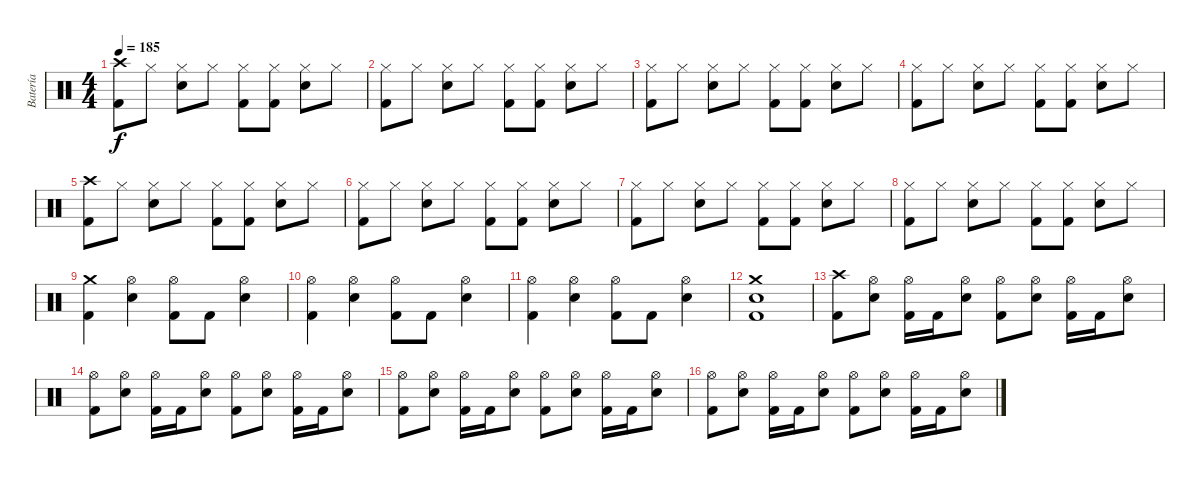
\track ("Batería" "Batería") {instrument percussion}
\staff {score}
\articulation defaults
\ts (4 4)
\tempo 185
\clef neutral
\ks c
("Crash high (hit)" "Kick (hit) 2").8{dy f} "Hi-Hat (closed)".8 ("Hi-Hat (closed)" "Electric Snare (hit)").8 "Hi-Hat (closed)".8 ("Hi-Hat (closed)" "Kick (hit) 2").8 ("Hi-Hat (closed)" "Kick (hit) 2").8 ("Hi-Hat (closed)" "Electric Snare (hit)").8 "Hi-Hat (closed)".8 |
("Hi-Hat (closed)" "Kick (hit) 2").8 "Hi-Hat (closed)".8 ("Hi-Hat (closed)" "Electric Snare (hit)").8 "Hi-Hat (closed)".8 ("Hi-Hat (closed)" "Kick (hit) 2").8 ("Hi-Hat (closed)" "Kick (hit) 2").8 ("Hi-Hat (closed)" "Electric Snare (hit)").8 "Hi-Hat (closed)".8 |
("Hi-Hat (closed)" "Kick (hit) 2").8 "Hi-Hat (closed)".8 ("Hi-Hat (closed)" "Electric Snare (hit)").8 "Hi-Hat (closed)".8 ("Hi-Hat (closed)" "Kick (hit) 2").8 ("Hi-Hat (closed)" "Kick (hit) 2").8 ("Hi-Hat (closed)" "Electric Snare (hit)").8 "Hi-Hat (closed)".8 |
("Hi-Hat (closed)" "Kick (hit) 2").8 "Hi-Hat (closed)".8 ("Hi-Hat (closed)" "Electric Snare (hit)").8 "Hi-Hat (closed)".8 ("Hi-Hat (closed)" "Kick (hit) 2").8 ("Hi-Hat (closed)" "Kick (hit) 2").8 ("Hi-Hat (closed)" "Electric Snare (hit)").8 "Hi-Hat (closed)".8 |
("Crash high (hit)" "Kick (hit) 2").8 "Hi-Hat (closed)".8 ("Hi-Hat (closed)" "Electric Snare (hit)").8 "Hi-Hat (closed)".8 ("Hi-Hat (closed)" "Kick (hit) 2").8 ("Hi-Hat (closed)" "Kick (hit) 2").8 ("Hi-Hat (closed)" "Electric Snare (hit)").8 "Hi-Hat (closed)".8 |
("Hi-Hat (closed)" "Kick (hit) 2").8 "Hi-Hat (closed)".8 ("Hi-Hat (closed)" "Electric Snare (hit)").8 "Hi-Hat (closed)".8 ("Hi-Hat (closed)" "Kick (hit) 2").8 ("Hi-Hat (closed)" "Kick (hit) 2").8 ("Hi-Hat (closed)" "Electric Snare (hit)").8 "Hi-Hat (closed)".8 |
("Hi-Hat (closed)" "Kick (hit) 2").8 "Hi-Hat (closed)".8 ("Hi-Hat (closed)" "Electric Snare (hit)").8 "Hi-Hat (closed)".8 ("Hi-Hat (closed)" "Kick (hit) 2").8 ("Hi-Hat (closed)" "Kick (hit) 2").8 ("Hi-Hat (closed)" "Electric Snare (hit)").8 "Hi-Hat (closed)".8 |
("Hi-Hat (closed)" "Kick (hit) 2").8 "Hi-Hat (closed)".8 ("Hi-Hat (closed)" "Electric Snare (hit)").8 "Hi-Hat (closed)".8 ("Hi-Hat (closed)" "Kick (hit) 2").8 ("Hi-Hat (closed)" "Kick (hit) 2").8 ("Hi-Hat (closed)" "Electric Snare (hit)").8 "Hi-Hat (closed)".8 |
("Crash medium (hit)" "Kick (hit) 2").4 ("Hi-Hat (open)" "Electric Snare (hit)").4 ("Hi-Hat (open)" "Kick (hit) 2").8 "Kick (hit) 2".8 ("Hi-Hat (open)" "Electric Snare (hit)").4 |
("Hi-Hat (open)" "Kick (hit) 2").4 ("Hi-Hat (open)" "Electric Snare (hit)").4 ("Hi-Hat (open)" "Kick (hit) 2").8 "Kick (hit) 2".8 ("Hi-Hat (open)" "Electric Snare (hit)").4 |
("Hi-Hat (open)" "Kick (hit) 2").4 ("Hi-Hat (open)" "Electric Snare (hit)").4 ("Hi-Hat (open)" "Kick (hit) 2").8 "Kick (hit) 2".8 ("Hi-Hat (open)" "Electric Snare (hit)").4 |
("Crash medium (hit)" "Electric Snare (hit)" "Kick (hit) 2").1 |
("Crash high (hit)" "Kick (hit) 2").8 ("Hi-Hat (open)" "Electric Snare (hit)").8 ("Hi-Hat (open)" "Kick (hit) 2").16 "Kick (hit) 2".16 ("Hi-Hat (open)" "Electric Snare (hit)").8 ("Hi-Hat (open)" "Kick (hit) 2").8 ("Hi-Hat (open)" "Electric Snare (hit)").8 ("Hi-Hat (open)" "Kick (hit) 2").16 "Kick (hit) 2".16 ("Hi-Hat (open)" "Electric Snare (hit)").8 |
("Hi-Hat (open)" "Kick (hit) 2").8 ("Hi-Hat (open)" "Electric Snare (hit)").8 ("Hi-Hat (open)" "Kick (hit) 2").16 "Kick (hit) 2".16 ("Hi-Hat (open)" "Electric Snare (hit)").8 ("Hi-Hat (open)" "Kick (hit) 2").8 ("Hi-Hat (open)" "Electric Snare (hit)").8 ("Hi-Hat (open)" "Kick (hit) 2").16 "Kick (hit) 2".16 ("Hi-Hat (open)" "Electric Snare (hit)").8 |
("Hi-Hat (open)" "Kick (hit) 2").8 ("Hi-Hat (open)" "Electric Snare (hit)").8 ("Hi-Hat (open)" "Kick (hit) 2").16 "Kick (hit) 2".16 ("Hi-Hat (open)" "Electric Snare (hit)").8 ("Hi-Hat (open)" "Kick (hit) 2").8 ("Hi-Hat (open)" "Electric Snare (hit)").8 ("Hi-Hat (open)" "Kick (hit) 2").16 "Kick (hit) 2".16 ("Hi-Hat (open)" "Electric Snare (hit)").8 |
("Hi-Hat (open)" "Kick (hit) 2").8 ("Hi-Hat (open)" "Electric Snare (hit)").8 ("Hi-Hat (open)" "Kick (hit) 2").16 "Kick (hit) 2".16 ("Hi-Hat (open)" "Electric Snare (hit)").8 ("Hi-Hat (open)" "Kick (hit) 2").8 ("Hi-Hat (open)" "Electric Snare (hit)").8 ("Hi-Hat (open)" "Kick (hit) 2").16 "Kick (hit) 2".16 ("Hi-Hat (open)" "Electric Snare (hit)").8
